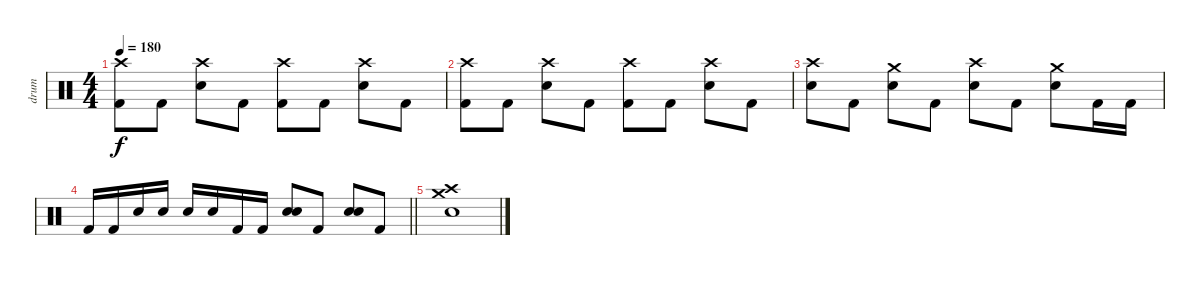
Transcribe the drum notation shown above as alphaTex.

\track ("drum" "drum") {instrument percussion}
\staff {score}
\articulation defaults
\ts (4 4)
\tempo 180
\clef neutral
\ks c
("Crash high (hit)" "Kick (hit) 2").8{dy f} "Kick (hit) 2".8 ("Crash high (hit)" "Snare (hit) 2").8 "Kick (hit) 2".8 ("Crash high (hit)" "Kick (hit) 2").8 "Kick (hit) 2".8 ("Crash high (hit)" "Snare (hit) 2").8 "Kick (hit) 2".8 |
("Crash high (hit)" "Kick (hit) 2").8 "Kick (hit) 2".8 ("Crash high (hit)" "Snare (hit) 2").8 "Kick (hit) 2".8 ("Crash high (hit)" "Kick (hit) 2").8 "Kick (hit) 2".8 ("Crash high (hit)" "Snare (hit) 2").8 "Kick (hit) 2".8 |
("Crash high (hit)" "Snare (hit) 2").8 "Kick (hit) 2".8 ("Crash medium (hit)" "Snare (hit) 2").8 "Kick (hit) 2".8 ("Crash high (hit)" "Snare (hit) 2").8 "Kick (hit) 2".8 ("Crash medium (hit)" "Snare (hit) 2").8 "Kick (hit) 2".16 "Kick (hit) 2".16 |
\barLineRight lightlight "Kick (hit) 2".16 "Kick (hit) 2".16 "Snare (hit) 2".16 "Snare (hit) 2".16 "Snare (hit) 2".16 "Snare (hit) 2".16 "Kick (hit) 2".16 "Kick (hit) 2".16
("Snare (hit) 2" "Electric Snare (hit)").8 "Kick (hit) 2".8 ("Snare (hit) 2" "Electric Snare (hit)").8 "Kick (hit) 2".8 |
("Crash high (hit)" "Snare (hit) 2" "Crash medium (hit)").1
